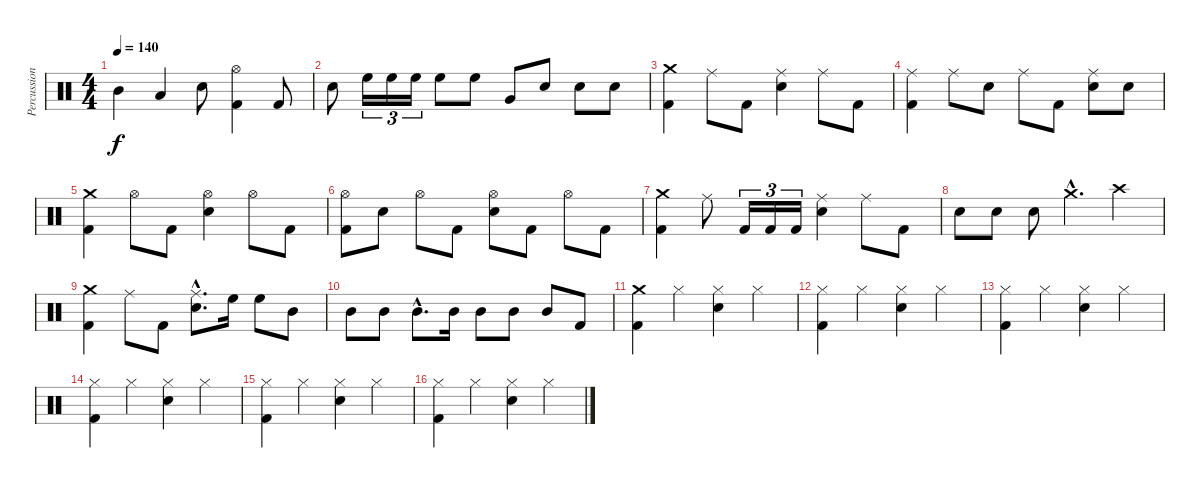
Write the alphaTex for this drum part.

\track ("Percussion" "Percussion") {instrument percussion}
\staff {score}
\articulation defaults
\ts (4 4)
\tempo 140
\clef neutral
\ks c "Mid Tom (hit)".4{dy f} "Low Tom (hit)".4 "Snare (hit) 2".8
("Hi-Hat (open)" "Kick (hit) 2").4 "Kick (hit) 2".8 |
"Snare (hit) 2".8 "High Floor Tom (hit)".16{tu (3 2)} "High Floor Tom (hit)".16{tu (3 2)} "High Floor Tom (hit)".16{tu (3 2)} "High Floor Tom (hit)".8 "High Floor Tom (hit)".8 "Very Low Tom (hit)".8 "Snare (hit) 2".8 "Snare (hit) 2".8 "Snare (hit) 2".8 |
("Crash medium (hit)" "Kick (hit) 2").4 "Ride (middle)".8 "Kick (hit) 2".8 ("Ride (middle)" "Snare (hit) 2").4 "Ride (middle)".8 "Kick (hit) 2".8 |
("Ride (middle)" "Kick (hit) 2").4 "Ride (middle)".8 "Snare (hit) 2".8 "Ride (middle)".8 "Kick (hit) 2".8 ("Ride (middle)" "Snare (hit) 2").8 "Snare (hit) 2".8 |
("Crash medium (hit)" "Kick (hit) 2").4 "Hi-Hat (open)".8 "Kick (hit) 2".8 ("Hi-Hat (open)" "Snare (hit) 2").4 "Hi-Hat (open)".8 "Kick (hit) 2".8 |
("Hi-Hat (open)" "Kick (hit) 2").8 "Snare (hit) 2".8 "Hi-Hat (open)".8 "Kick (hit) 2".8 ("Hi-Hat (open)" "Snare (hit) 2").8 "Kick (hit) 2".8 "Hi-Hat (open)".8 "Kick (hit) 2".8 |
("Crash medium (hit)" "Kick (hit) 2").4 "Ride (middle)".8 "Kick (hit) 2".16{tu (3 2)} "Kick (hit) 2".16{tu (3 2)} "Kick (hit) 2".16{tu (3 2)} ("Ride (middle)" "Snare (hit) 2").4 "Ride (middle)".8 "Kick (hit) 2".8 |
"Snare (hit) 2".8 "Snare (hit) 2".8 "Snare (hit) 2".8 "Crash medium (hit)"{hac}.4{d} "Crash high (hit)".4 |
("Crash medium (hit)" "Kick (hit) 2").4 "Ride (middle)".8 "Kick (hit) 2".8 ("Ride (middle)"{hac} "Snare (hit) 2"{hac}).8{d} "High Floor Tom (hit)".16 "High Floor Tom (hit)".8 "Mid Tom (hit)".8 |
"Mid Tom (hit)".8 "Mid Tom (hit)".8 "Mid Tom (hit)"{hac}.8{d} "Mid Tom (hit)".16 "Mid Tom (hit)".8 "Mid Tom (hit)".8 "Mid Tom (hit)".8 "Kick (hit) 2".8 |
("Crash medium (hit)" "Kick (hit) 2").4 "Hi-Hat (closed)".4 ("Hi-Hat (closed)" "Snare (hit) 2").4 "Hi-Hat (closed)".4 |
("Hi-Hat (closed)" "Kick (hit) 2").4 "Hi-Hat (closed)".4 ("Hi-Hat (closed)" "Snare (hit) 2").4 "Hi-Hat (closed)".4 |
("Hi-Hat (closed)" "Kick (hit) 2").4 "Hi-Hat (closed)".4 ("Hi-Hat (closed)" "Snare (hit) 2").4 "Hi-Hat (closed)".4 |
("Hi-Hat (closed)" "Kick (hit) 2").4 "Hi-Hat (closed)".4 ("Hi-Hat (closed)" "Snare (hit) 2").4 "Hi-Hat (closed)".4 |
("Hi-Hat (closed)" "Kick (hit) 2").4 "Hi-Hat (closed)".4 ("Hi-Hat (closed)" "Snare (hit) 2").4 "Hi-Hat (closed)".4 |
("Hi-Hat (closed)" "Kick (hit) 2").4 "Hi-Hat (closed)".4 ("Hi-Hat (closed)" "Snare (hit) 2").4 "Hi-Hat (closed)".4
